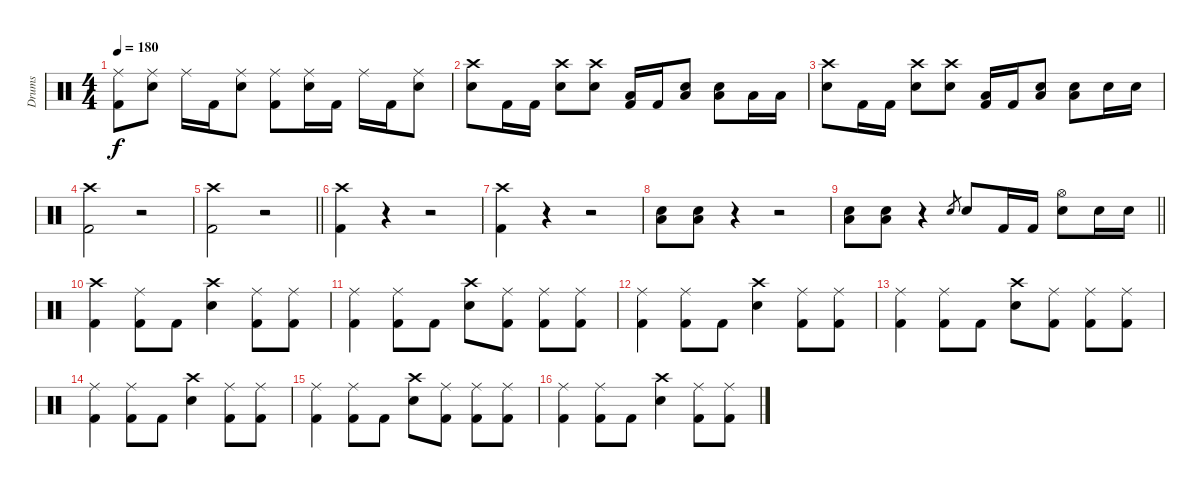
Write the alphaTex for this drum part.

\track ("Drums" "Drums") {instrument percussion}
\staff {score}
\articulation defaults
\ts (4 4)
\tempo 180
\clef neutral
\ks c
("Ride (middle)" "Kick (hit) 2").8{dy f} ("Ride (middle)" "Snare (hit) 2").8 "Ride (middle)".16 "Kick (hit) 2".16 ("Ride (middle)" "Snare (hit) 2").8 ("Ride (middle)" "Kick (hit) 2").8 ("Ride (middle)" "Snare (hit) 2").16 "Kick (hit) 2".16 "Ride (middle)".16 "Kick (hit) 2".16 ("Ride (middle)" "Snare (hit) 2").8 |
("Crash high (hit)" "Snare (hit) 2").8 "Kick (hit) 2".16 "Kick (hit) 2".16 ("Crash high (hit)" "Snare (hit) 2").8 ("Crash high (hit)" "Snare (hit) 2").8 ("Low Tom (hit)" "Kick (hit) 2").16 "Kick (hit) 2".16 ("Snare (hit) 2" "Low Floor Tom (hit)").8 ("Snare (hit) 2" "Low Floor Tom (hit)").8 "Low Floor Tom (hit)".16 "Low Floor Tom (hit)".16 |
("Crash high (hit)" "Snare (hit) 2").8 "Kick (hit) 2".16 "Kick (hit) 2".16 ("Crash high (hit)" "Snare (hit) 2").8 ("Crash high (hit)" "Snare (hit) 2").8 ("Low Tom (hit)" "Kick (hit) 2").16 "Kick (hit) 2".16 ("Snare (hit) 2" "Low Floor Tom (hit)").8 ("Snare (hit) 2" "Low Floor Tom (hit)").8 "Snare (hit) 2".16 "Snare (hit) 2".16 |
("Crash high (hit)" "Kick (hit) 2").2 r.2 |
\barLineRight lightlight
("Crash high (hit)" "Kick (hit) 2").2 r.2 |
("Crash high (hit)" "Kick (hit) 2").4 r.4 r.2 |
("Crash high (hit)" "Kick (hit) 2").4 r.4 r.2 |
("Snare (hit) 2" "Low Floor Tom (hit)").8 ("Snare (hit) 2" "Low Floor Tom (hit)").8 r.4 r.2 |
\barLineRight lightlight
("Snare (hit) 2" "Low Floor Tom (hit)").8 ("Snare (hit) 2" "Low Floor Tom (hit)").8 r.4 "Snare (hit) 2".8{gr} "Snare (hit) 2".8 "Kick (hit) 2".16 "Kick (hit) 2".16 ("Hi-Hat (open)" "Snare (hit) 2").8 "Snare (hit) 2".16 "Snare (hit) 2".16 |
("Crash high (hit)" "Kick (hit) 2").4 ("Ride (middle)" "Kick (hit) 2").8 "Kick (hit) 2".8 ("Crash high (hit)" "Snare (hit) 2").4 ("Ride (middle)" "Kick (hit) 2").8 ("Ride (middle)" "Kick (hit) 2").8 |
("Ride (middle)" "Kick (hit) 2").4 ("Ride (middle)" "Kick (hit) 2").8 "Kick (hit) 2".8 ("Crash high (hit)" "Snare (hit) 2").8 ("Ride (middle)" "Kick (hit) 2").8 ("Ride (middle)" "Kick (hit) 2").8 ("Ride (middle)" "Kick (hit) 2").8 |
("Ride (middle)" "Kick (hit) 2").4 ("Ride (middle)" "Kick (hit) 2").8 "Kick (hit) 2".8 ("Crash high (hit)" "Snare (hit) 2").4 ("Ride (middle)" "Kick (hit) 2").8 ("Ride (middle)" "Kick (hit) 2").8 |
("Ride (middle)" "Kick (hit) 2").4 ("Ride (middle)" "Kick (hit) 2").8 "Kick (hit) 2".8 ("Crash high (hit)" "Snare (hit) 2").8 ("Ride (middle)" "Kick (hit) 2").8 ("Ride (middle)" "Kick (hit) 2").8 ("Ride (middle)" "Kick (hit) 2").8 |
("Ride (middle)" "Kick (hit) 2").4 ("Ride (middle)" "Kick (hit) 2").8 "Kick (hit) 2".8 ("Crash high (hit)" "Snare (hit) 2").4 ("Ride (middle)" "Kick (hit) 2").8 ("Ride (middle)" "Kick (hit) 2").8 |
("Ride (middle)" "Kick (hit) 2").4 ("Ride (middle)" "Kick (hit) 2").8 "Kick (hit) 2".8 ("Crash high (hit)" "Snare (hit) 2").8 ("Ride (middle)" "Kick (hit) 2").8 ("Ride (middle)" "Kick (hit) 2").8 ("Ride (middle)" "Kick (hit) 2").8 |
("Ride (middle)" "Kick (hit) 2").4 ("Ride (middle)" "Kick (hit) 2").8 "Kick (hit) 2".8 ("Crash high (hit)" "Snare (hit) 2").4 ("Ride (middle)" "Kick (hit) 2").8 ("Ride (middle)" "Kick (hit) 2").8
